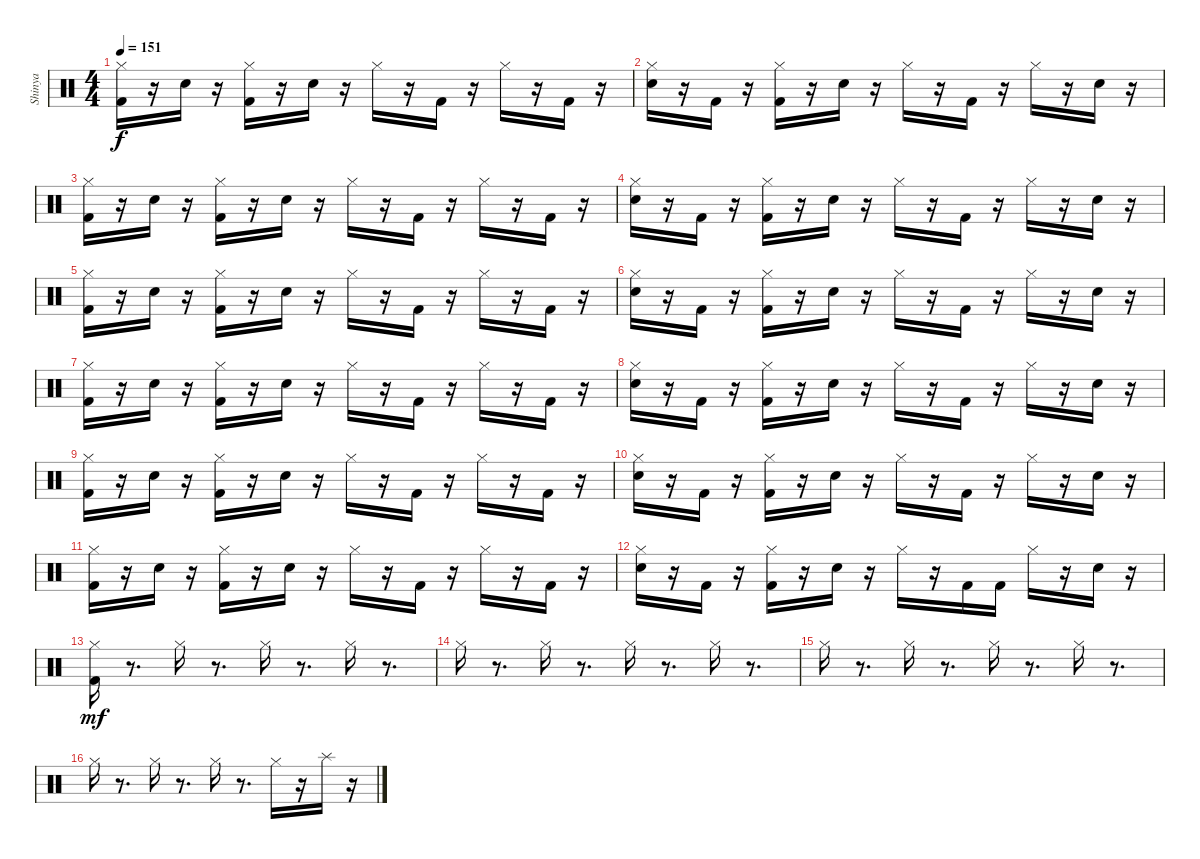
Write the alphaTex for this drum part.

\track ("Shinya" "Shinya") {instrument percussion}
\staff {score}
\articulation defaults
\ts (4 4)
\tempo 151
\clef neutral
\ks c
("Hi-Hat (closed)" "Kick (hit) 2").16{dy f} r.16 "Snare (hit) 2".16 r.16 ("Hi-Hat (closed)" "Kick (hit) 2").16 r.16 "Snare (hit) 2".16 r.16 "Hi-Hat (closed)".16 r.16 "Kick (hit) 2".16 r.16 "Hi-Hat (closed)".16 r.16 "Kick (hit) 2".16 r.16 |
("Snare (hit) 2" "Hi-Hat (closed)").16 r.16 "Kick (hit) 2".16 r.16 ("Kick (hit) 2" "Hi-Hat (closed)").16 r.16 "Snare (hit) 2".16 r.16 "Hi-Hat (closed)".16 r.16 "Kick (hit) 2".16 r.16 "Hi-Hat (closed)".16 r.16 "Snare (hit) 2".16 r.16 |
("Hi-Hat (closed)" "Kick (hit) 2").16 r.16 "Snare (hit) 2".16 r.16 ("Hi-Hat (closed)" "Kick (hit) 2").16 r.16 "Snare (hit) 2".16 r.16 "Hi-Hat (closed)".16 r.16 "Kick (hit) 2".16 r.16 "Hi-Hat (closed)".16 r.16 "Kick (hit) 2".16 r.16 |
("Snare (hit) 2" "Hi-Hat (closed)").16 r.16 "Kick (hit) 2".16 r.16 ("Kick (hit) 2" "Hi-Hat (closed)").16 r.16 "Snare (hit) 2".16 r.16 "Hi-Hat (closed)".16 r.16 "Kick (hit) 2".16 r.16 "Hi-Hat (closed)".16 r.16 "Snare (hit) 2".16 r.16 |
("Hi-Hat (closed)" "Kick (hit) 2").16 r.16 "Snare (hit) 2".16 r.16 ("Hi-Hat (closed)" "Kick (hit) 2").16 r.16 "Snare (hit) 2".16 r.16 "Hi-Hat (closed)".16 r.16 "Kick (hit) 2".16 r.16 "Hi-Hat (closed)".16 r.16 "Kick (hit) 2".16 r.16 |
("Snare (hit) 2" "Hi-Hat (closed)").16 r.16 "Kick (hit) 2".16 r.16 ("Kick (hit) 2" "Hi-Hat (closed)").16 r.16 "Snare (hit) 2".16 r.16 "Hi-Hat (closed)".16 r.16 "Kick (hit) 2".16 r.16 "Hi-Hat (closed)".16 r.16 "Snare (hit) 2".16 r.16 |
("Hi-Hat (closed)" "Kick (hit) 2").16 r.16 "Snare (hit) 2".16 r.16 ("Hi-Hat (closed)" "Kick (hit) 2").16 r.16 "Snare (hit) 2".16 r.16 "Hi-Hat (closed)".16 r.16 "Kick (hit) 2".16 r.16 "Hi-Hat (closed)".16 r.16 "Kick (hit) 2".16 r.16 |
("Snare (hit) 2" "Hi-Hat (closed)").16 r.16 "Kick (hit) 2".16 r.16 ("Kick (hit) 2" "Hi-Hat (closed)").16 r.16 "Snare (hit) 2".16 r.16 "Hi-Hat (closed)".16 r.16 "Kick (hit) 2".16 r.16 "Hi-Hat (closed)".16 r.16 "Snare (hit) 2".16 r.16 |
("Hi-Hat (closed)" "Kick (hit) 2").16 r.16 "Snare (hit) 2".16 r.16 ("Hi-Hat (closed)" "Kick (hit) 2").16 r.16 "Snare (hit) 2".16 r.16 "Hi-Hat (closed)".16 r.16 "Kick (hit) 2".16 r.16 "Hi-Hat (closed)".16 r.16 "Kick (hit) 2".16 r.16 |
("Snare (hit) 2" "Hi-Hat (closed)").16 r.16 "Kick (hit) 2".16 r.16 ("Kick (hit) 2" "Hi-Hat (closed)").16 r.16 "Snare (hit) 2".16 r.16 "Hi-Hat (closed)".16 r.16 "Kick (hit) 2".16 r.16 "Hi-Hat (closed)".16 r.16 "Snare (hit) 2".16 r.16 |
("Hi-Hat (closed)" "Kick (hit) 2").16 r.16 "Snare (hit) 2".16 r.16 ("Hi-Hat (closed)" "Kick (hit) 2").16 r.16 "Snare (hit) 2".16 r.16 "Hi-Hat (closed)".16 r.16 "Kick (hit) 2".16 r.16 "Hi-Hat (closed)".16 r.16 "Kick (hit) 2".16 r.16 |
("Snare (hit) 2" "Hi-Hat (closed)").16 r.16 "Kick (hit) 2".16 r.16 ("Kick (hit) 2" "Hi-Hat (closed)").16 r.16 "Snare (hit) 2".16 r.16 "Hi-Hat (closed)".16 r.16 "Kick (hit) 2".16 "Kick (hit) 2".16 "Hi-Hat (closed)".16 r.16 "Snare (hit) 2".16 r.16 |
("Hi-Hat (closed)" "Kick (hit) 2").16{dy mf} r.8{d} "Hi-Hat (closed)".16 r.8{d} "Hi-Hat (closed)".16 r.8{d} "Hi-Hat (closed)".16 r.8{d} |
"Hi-Hat (closed)".16 r.8{d} "Hi-Hat (closed)".16 r.8{d} "Hi-Hat (closed)".16 r.8{d} "Hi-Hat (closed)".16 r.8{d} |
"Hi-Hat (closed)".16 r.8{d} "Hi-Hat (closed)".16 r.8{d} "Hi-Hat (closed)".16 r.8{d} "Hi-Hat (closed)".16 r.8{d} |
"Hi-Hat (closed)".16 r.8{d} "Hi-Hat (closed)".16 r.8{d} "Hi-Hat (closed)".16 r.8{d} "Hi-Hat (closed)".16 r.16 "Splash (hit)".16 r.16
